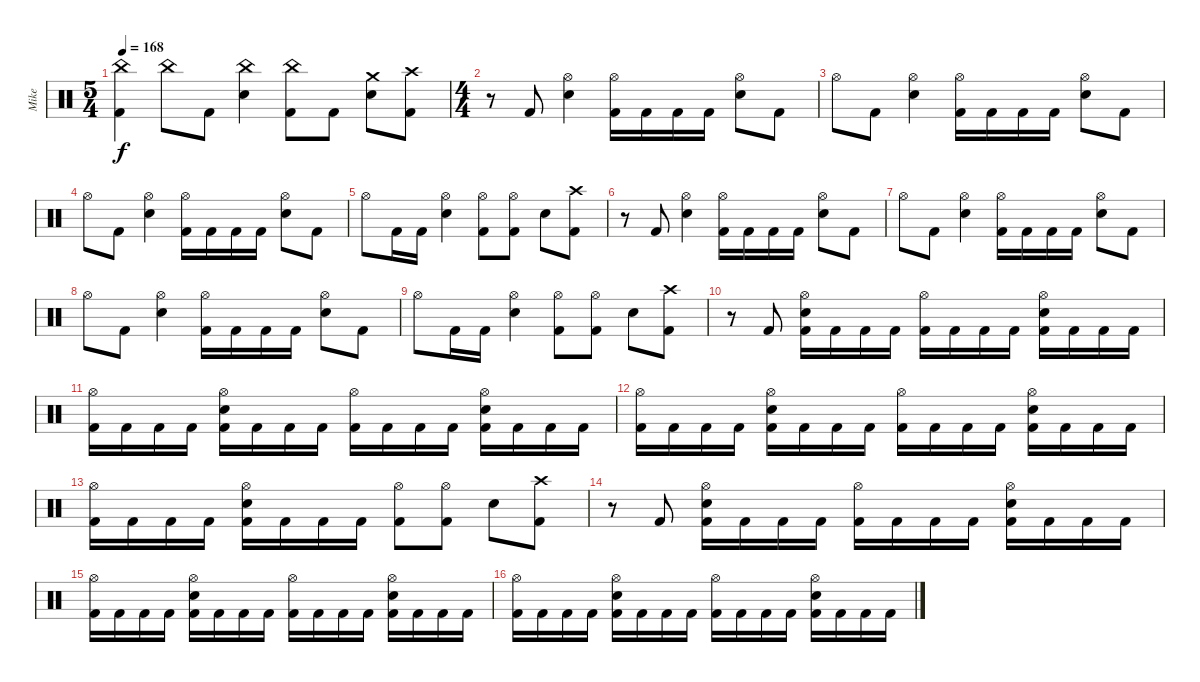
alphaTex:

\track ("Mike" "Mike") {instrument percussion}
\staff {score}
\articulation defaults
\ts (5 4)
\tempo 168
\clef neutral
\ks c
("Kick (hit) 2" "China (hit)").4{dy f} "China (hit)".8 "Kick (hit) 2".8 ("Electric Snare (hit)" "China (hit)").4 ("Kick (hit) 2" "China (hit)").8 "Kick (hit) 2".8 ("Electric Snare (hit)" "Crash medium (hit)").8 ("Kick (hit) 2" "Crash high (hit)").8 |
\ts (4 4)
r.8 "Kick (hit) 2".8 ("Electric Snare (hit)" "Hi-Hat (open)").4 ("Kick (hit) 2" "Hi-Hat (open)").16 "Kick (hit) 2".16 "Kick (hit) 2".16 "Kick (hit) 2".16 ("Electric Snare (hit)" "Hi-Hat (open)").8 "Kick (hit) 2".8 |
"Hi-Hat (open)".8 "Kick (hit) 2".8 ("Electric Snare (hit)" "Hi-Hat (open)").4 ("Kick (hit) 2" "Hi-Hat (open)").16 "Kick (hit) 2".16 "Kick (hit) 2".16 "Kick (hit) 2".16 ("Electric Snare (hit)" "Hi-Hat (open)").8 "Kick (hit) 2".8 |
"Hi-Hat (open)".8 "Kick (hit) 2".8 ("Electric Snare (hit)" "Hi-Hat (open)").4 ("Kick (hit) 2" "Hi-Hat (open)").16 "Kick (hit) 2".16 "Kick (hit) 2".16 "Kick (hit) 2".16 ("Electric Snare (hit)" "Hi-Hat (open)").8 "Kick (hit) 2".8 |
"Hi-Hat (open)".8 "Kick (hit) 2".16 "Kick (hit) 2".16 ("Electric Snare (hit)" "Hi-Hat (open)").4 ("Kick (hit) 2" "Hi-Hat (open)").8 ("Kick (hit) 2" "Hi-Hat (open)").8 "Electric Snare (hit)".8 ("Kick (hit) 2" "Crash high (hit)").8 |
r.8 "Kick (hit) 2".8 ("Electric Snare (hit)" "Hi-Hat (open)").4 ("Kick (hit) 2" "Hi-Hat (open)").16 "Kick (hit) 2".16 "Kick (hit) 2".16 "Kick (hit) 2".16 ("Electric Snare (hit)" "Hi-Hat (open)").8 "Kick (hit) 2".8 |
"Hi-Hat (open)".8 "Kick (hit) 2".8 ("Electric Snare (hit)" "Hi-Hat (open)").4 ("Kick (hit) 2" "Hi-Hat (open)").16 "Kick (hit) 2".16 "Kick (hit) 2".16 "Kick (hit) 2".16 ("Electric Snare (hit)" "Hi-Hat (open)").8 "Kick (hit) 2".8 |
"Hi-Hat (open)".8 "Kick (hit) 2".8 ("Electric Snare (hit)" "Hi-Hat (open)").4 ("Kick (hit) 2" "Hi-Hat (open)").16 "Kick (hit) 2".16 "Kick (hit) 2".16 "Kick (hit) 2".16 ("Electric Snare (hit)" "Hi-Hat (open)").8 "Kick (hit) 2".8 |
"Hi-Hat (open)".8 "Kick (hit) 2".16 "Kick (hit) 2".16 ("Electric Snare (hit)" "Hi-Hat (open)").4 ("Kick (hit) 2" "Hi-Hat (open)").8 ("Kick (hit) 2" "Hi-Hat (open)").8 "Electric Snare (hit)".8 ("Kick (hit) 2" "Crash high (hit)").8 |
r.8 "Kick (hit) 2".8 ("Kick (hit) 2" "Electric Snare (hit)" "Hi-Hat (open)").16 "Kick (hit) 2".16 "Kick (hit) 2".16 "Kick (hit) 2".16 ("Kick (hit) 2" "Hi-Hat (open)").16 "Kick (hit) 2".16 "Kick (hit) 2".16 "Kick (hit) 2".16 ("Kick (hit) 2" "Electric Snare (hit)" "Hi-Hat (open)").16 "Kick (hit) 2".16 "Kick (hit) 2".16 "Kick (hit) 2".16 |
("Kick (hit) 2" "Hi-Hat (open)").16 "Kick (hit) 2".16 "Kick (hit) 2".16 "Kick (hit) 2".16 ("Kick (hit) 2" "Electric Snare (hit)" "Hi-Hat (open)").16 "Kick (hit) 2".16 "Kick (hit) 2".16 "Kick (hit) 2".16 ("Kick (hit) 2" "Hi-Hat (open)").16 "Kick (hit) 2".16 "Kick (hit) 2".16 "Kick (hit) 2".16 ("Kick (hit) 2" "Electric Snare (hit)" "Hi-Hat (open)").16 "Kick (hit) 2".16 "Kick (hit) 2".16 "Kick (hit) 2".16 |
("Kick (hit) 2" "Hi-Hat (open)").16 "Kick (hit) 2".16 "Kick (hit) 2".16 "Kick (hit) 2".16 ("Kick (hit) 2" "Electric Snare (hit)" "Hi-Hat (open)").16 "Kick (hit) 2".16 "Kick (hit) 2".16 "Kick (hit) 2".16 ("Kick (hit) 2" "Hi-Hat (open)").16 "Kick (hit) 2".16 "Kick (hit) 2".16 "Kick (hit) 2".16 ("Kick (hit) 2" "Electric Snare (hit)" "Hi-Hat (open)").16 "Kick (hit) 2".16 "Kick (hit) 2".16 "Kick (hit) 2".16 |
("Kick (hit) 2" "Hi-Hat (open)").16 "Kick (hit) 2".16 "Kick (hit) 2".16 "Kick (hit) 2".16 ("Kick (hit) 2" "Electric Snare (hit)" "Hi-Hat (open)").16 "Kick (hit) 2".16 "Kick (hit) 2".16 "Kick (hit) 2".16 ("Kick (hit) 2" "Hi-Hat (open)").8 ("Kick (hit) 2" "Hi-Hat (open)").8 "Electric Snare (hit)".8 ("Kick (hit) 2" "Crash high (hit)").8 |
r.8 "Kick (hit) 2".8 ("Kick (hit) 2" "Electric Snare (hit)" "Hi-Hat (open)").16 "Kick (hit) 2".16 "Kick (hit) 2".16 "Kick (hit) 2".16 ("Kick (hit) 2" "Hi-Hat (open)").16 "Kick (hit) 2".16 "Kick (hit) 2".16 "Kick (hit) 2".16 ("Kick (hit) 2" "Electric Snare (hit)" "Hi-Hat (open)").16 "Kick (hit) 2".16 "Kick (hit) 2".16 "Kick (hit) 2".16 |
("Kick (hit) 2" "Hi-Hat (open)").16 "Kick (hit) 2".16 "Kick (hit) 2".16 "Kick (hit) 2".16 ("Kick (hit) 2" "Electric Snare (hit)" "Hi-Hat (open)").16 "Kick (hit) 2".16 "Kick (hit) 2".16 "Kick (hit) 2".16 ("Kick (hit) 2" "Hi-Hat (open)").16 "Kick (hit) 2".16 "Kick (hit) 2".16 "Kick (hit) 2".16 ("Kick (hit) 2" "Electric Snare (hit)" "Hi-Hat (open)").16 "Kick (hit) 2".16 "Kick (hit) 2".16 "Kick (hit) 2".16 |
("Kick (hit) 2" "Hi-Hat (open)").16 "Kick (hit) 2".16 "Kick (hit) 2".16 "Kick (hit) 2".16 ("Kick (hit) 2" "Electric Snare (hit)" "Hi-Hat (open)").16 "Kick (hit) 2".16 "Kick (hit) 2".16 "Kick (hit) 2".16 ("Kick (hit) 2" "Hi-Hat (open)").16 "Kick (hit) 2".16 "Kick (hit) 2".16 "Kick (hit) 2".16 ("Kick (hit) 2" "Electric Snare (hit)" "Hi-Hat (open)").16 "Kick (hit) 2".16 "Kick (hit) 2".16 "Kick (hit) 2".16
